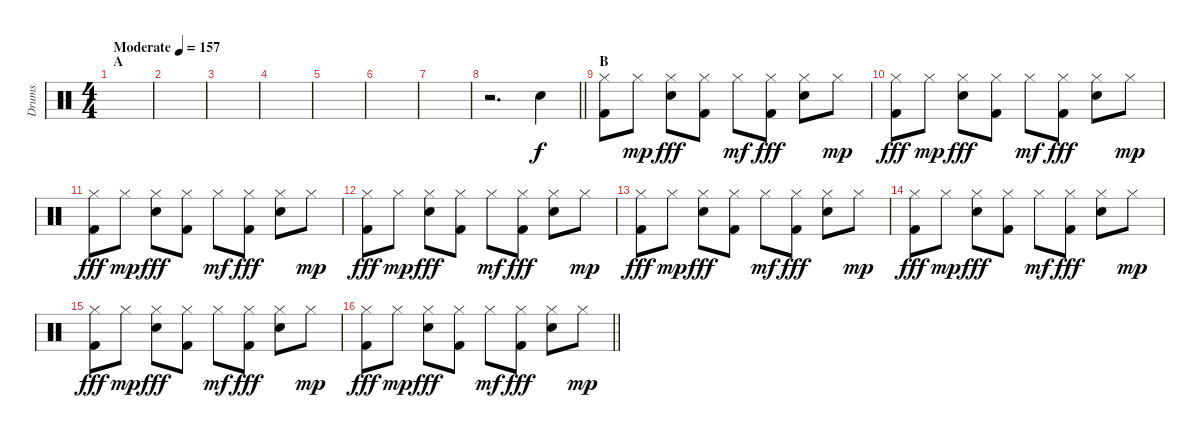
\track ("Drums" "Drums") {instrument percussion}
\staff
\articulation defaults
\ts (4 4)
\section ("" "A")
\tempo (157 "Moderate")
\clef neutral
\ks c
|
|
|
|
|
|
|
\barLineRight lightlight
r.2{d} "Electric Snare (hit)".4 |
\section ("" "B")
("Hi-Hat (closed)" "Kick (hit) 2").8 "Hi-Hat (closed)".8{dy mp} ("Hi-Hat (closed)" "Electric Snare (hit)").8{dy fff} ("Hi-Hat (closed)" "Kick (hit) 2").8 "Hi-Hat (closed)".8{dy mf} ("Hi-Hat (closed)" "Kick (hit) 2").8{dy fff} ("Hi-Hat (closed)" "Electric Snare (hit)").8 "Hi-Hat (closed)".8{dy mp} |
("Hi-Hat (closed)" "Kick (hit) 2").8{dy fff} "Hi-Hat (closed)".8{dy mp} ("Hi-Hat (closed)" "Electric Snare (hit)").8{dy fff} ("Hi-Hat (closed)" "Kick (hit) 2").8 "Hi-Hat (closed)".8{dy mf} ("Hi-Hat (closed)" "Kick (hit) 2").8{dy fff} ("Hi-Hat (closed)" "Electric Snare (hit)").8 "Hi-Hat (closed)".8{dy mp} |
("Hi-Hat (closed)" "Kick (hit) 2").8{dy fff} "Hi-Hat (closed)".8{dy mp} ("Hi-Hat (closed)" "Electric Snare (hit)").8{dy fff} ("Hi-Hat (closed)" "Kick (hit) 2").8 "Hi-Hat (closed)".8{dy mf} ("Hi-Hat (closed)" "Kick (hit) 2").8{dy fff} ("Hi-Hat (closed)" "Electric Snare (hit)").8 "Hi-Hat (closed)".8{dy mp} |
("Hi-Hat (closed)" "Kick (hit) 2").8{dy fff} "Hi-Hat (closed)".8{dy mp} ("Hi-Hat (closed)" "Electric Snare (hit)").8{dy fff} ("Hi-Hat (closed)" "Kick (hit) 2").8 "Hi-Hat (closed)".8{dy mf} ("Hi-Hat (closed)" "Kick (hit) 2").8{dy fff} ("Hi-Hat (closed)" "Electric Snare (hit)").8 "Hi-Hat (closed)".8{dy mp} |
("Hi-Hat (closed)" "Kick (hit) 2").8{dy fff} "Hi-Hat (closed)".8{dy mp} ("Hi-Hat (closed)" "Electric Snare (hit)").8{dy fff} ("Hi-Hat (closed)" "Kick (hit) 2").8 "Hi-Hat (closed)".8{dy mf} ("Hi-Hat (closed)" "Kick (hit) 2").8{dy fff} ("Hi-Hat (closed)" "Electric Snare (hit)").8 "Hi-Hat (closed)".8{dy mp} |
("Hi-Hat (closed)" "Kick (hit) 2").8{dy fff} "Hi-Hat (closed)".8{dy mp} ("Hi-Hat (closed)" "Electric Snare (hit)").8{dy fff} ("Hi-Hat (closed)" "Kick (hit) 2").8 "Hi-Hat (closed)".8{dy mf} ("Hi-Hat (closed)" "Kick (hit) 2").8{dy fff} ("Hi-Hat (closed)" "Electric Snare (hit)").8 "Hi-Hat (closed)".8{dy mp} |
("Hi-Hat (closed)" "Kick (hit) 2").8{dy fff} "Hi-Hat (closed)".8{dy mp} ("Hi-Hat (closed)" "Electric Snare (hit)").8{dy fff} ("Hi-Hat (closed)" "Kick (hit) 2").8 "Hi-Hat (closed)".8{dy mf} ("Hi-Hat (closed)" "Kick (hit) 2").8{dy fff} ("Hi-Hat (closed)" "Electric Snare (hit)").8 "Hi-Hat (closed)".8{dy mp} |
\barLineRight lightlight
("Hi-Hat (closed)" "Kick (hit) 2").8{dy fff} "Hi-Hat (closed)".8{dy mp} ("Hi-Hat (closed)" "Electric Snare (hit)").8{dy fff} ("Hi-Hat (closed)" "Kick (hit) 2").8 "Hi-Hat (closed)".8{dy mf} ("Hi-Hat (closed)" "Kick (hit) 2").8{dy fff} ("Hi-Hat (closed)" "Electric Snare (hit)").8 "Hi-Hat (closed)".8{dy mp}
